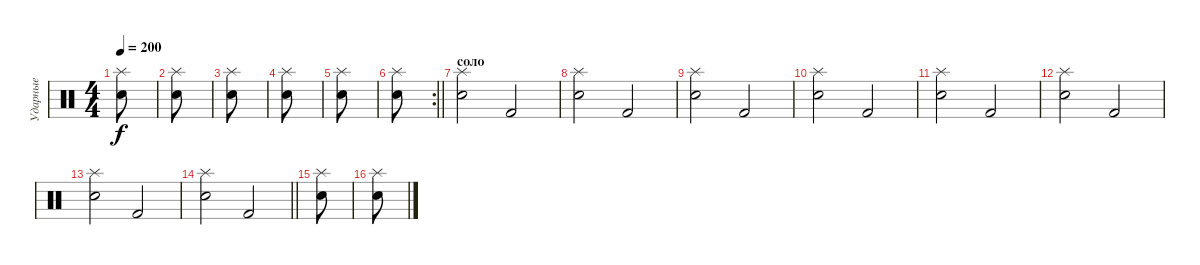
\track ("Ударные" "Ударные") {instrument percussion}
\staff {score}
\articulation defaults
\ts (4 4)
\tempo 200
\clef neutral
\ks c
("Splash (hit)" "Snare (hit) 2").8{dy f} |
("Splash (hit)" "Snare (hit) 2").8 |
("Splash (hit)" "Snare (hit) 2").8 |
("Splash (hit)" "Snare (hit) 2").8 |
("Splash (hit)" "Snare (hit) 2").8 |
\rc 2
\barLineRight lightlight
("Splash (hit)" "Snare (hit) 2").8 |
\section ("" "соло")
("Splash (hit)" "Snare (hit) 2").2 "Kick (hit) 2".2 |
("Splash (hit)" "Snare (hit) 2").2 "Kick (hit) 2".2 |
("Splash (hit)" "Snare (hit) 2").2 "Kick (hit) 2".2 |
("Splash (hit)" "Snare (hit) 2").2 "Kick (hit) 2".2 |
("Splash (hit)" "Snare (hit) 2").2 "Kick (hit) 2".2 |
("Splash (hit)" "Snare (hit) 2").2 "Kick (hit) 2".2 |
("Splash (hit)" "Snare (hit) 2").2 "Kick (hit) 2".2 |
\barLineRight lightlight
("Splash (hit)" "Snare (hit) 2").2 "Kick (hit) 2".2 |
("Splash (hit)" "Snare (hit) 2").8 |
("Splash (hit)" "Snare (hit) 2").8
